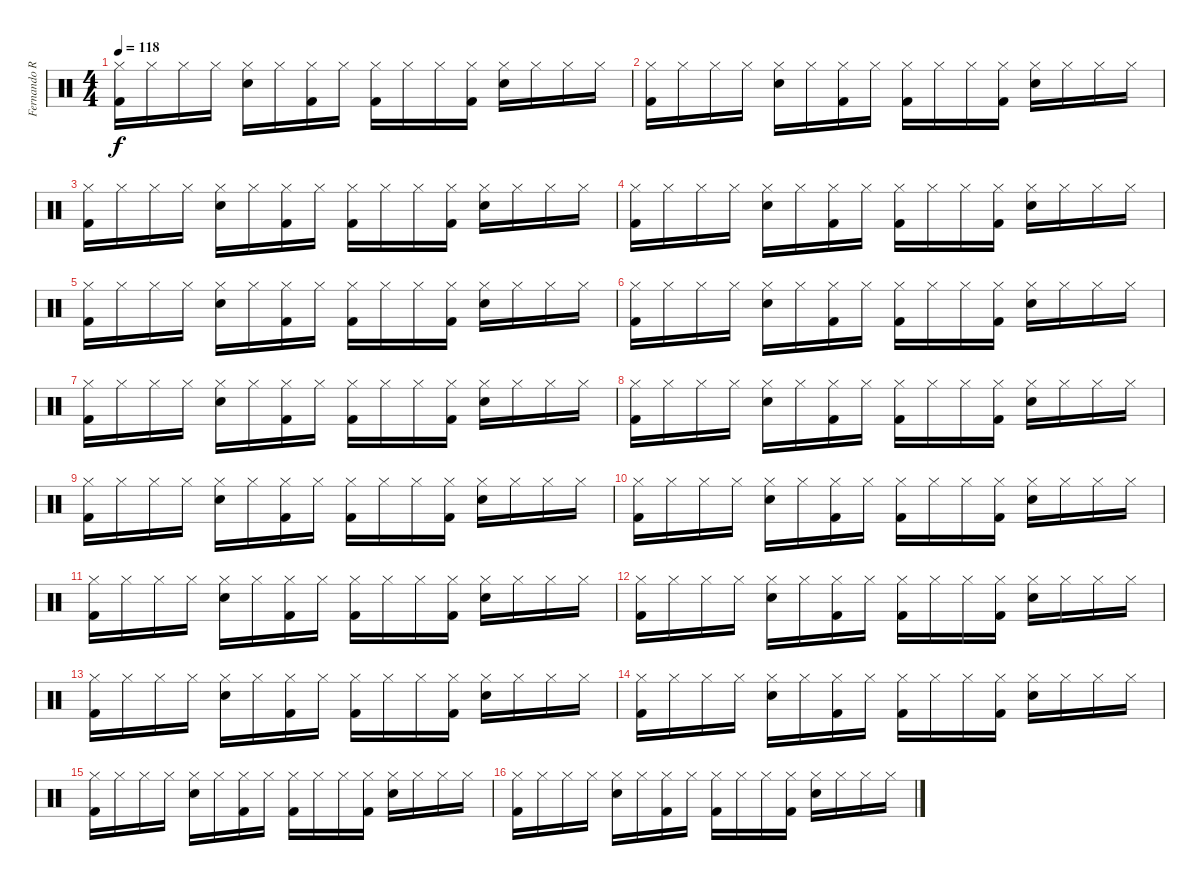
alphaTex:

\track ("Fernando Ricciardi" "Fernando R") {instrument percussion}
\staff {score}
\articulation defaults
\ts (4 4)
\tempo 118
\clef neutral
\ks c
("Hi-Hat (closed)" "Kick (hit) 2").16{dy f} "Hi-Hat (closed)".16 "Hi-Hat (closed)".16 "Hi-Hat (closed)".16 ("Hi-Hat (closed)" "Snare (hit) 2").16 "Hi-Hat (closed)".16 ("Hi-Hat (closed)" "Kick (hit) 2").16 "Hi-Hat (closed)".16 ("Hi-Hat (closed)" "Kick (hit) 2").16 "Hi-Hat (closed)".16 "Hi-Hat (closed)".16 ("Hi-Hat (closed)" "Kick (hit) 2").16 ("Hi-Hat (closed)" "Snare (hit) 2").16 "Hi-Hat (closed)".16 "Hi-Hat (closed)".16 "Hi-Hat (closed)".16 |
("Hi-Hat (closed)" "Kick (hit) 2").16 "Hi-Hat (closed)".16 "Hi-Hat (closed)".16 "Hi-Hat (closed)".16 ("Hi-Hat (closed)" "Snare (hit) 2").16 "Hi-Hat (closed)".16 ("Hi-Hat (closed)" "Kick (hit) 2").16 "Hi-Hat (closed)".16 ("Hi-Hat (closed)" "Kick (hit) 2").16 "Hi-Hat (closed)".16 "Hi-Hat (closed)".16 ("Hi-Hat (closed)" "Kick (hit) 2").16 ("Hi-Hat (closed)" "Snare (hit) 2").16 "Hi-Hat (closed)".16 "Hi-Hat (closed)".16 "Hi-Hat (closed)".16 |
("Hi-Hat (closed)" "Kick (hit) 2").16 "Hi-Hat (closed)".16 "Hi-Hat (closed)".16 "Hi-Hat (closed)".16 ("Hi-Hat (closed)" "Snare (hit) 2").16 "Hi-Hat (closed)".16 ("Hi-Hat (closed)" "Kick (hit) 2").16 "Hi-Hat (closed)".16 ("Hi-Hat (closed)" "Kick (hit) 2").16 "Hi-Hat (closed)".16 "Hi-Hat (closed)".16 ("Hi-Hat (closed)" "Kick (hit) 2").16 ("Hi-Hat (closed)" "Snare (hit) 2").16 "Hi-Hat (closed)".16 "Hi-Hat (closed)".16 "Hi-Hat (closed)".16 |
("Hi-Hat (closed)" "Kick (hit) 2").16 "Hi-Hat (closed)".16 "Hi-Hat (closed)".16 "Hi-Hat (closed)".16 ("Hi-Hat (closed)" "Snare (hit) 2").16 "Hi-Hat (closed)".16 ("Hi-Hat (closed)" "Kick (hit) 2").16 "Hi-Hat (closed)".16 ("Hi-Hat (closed)" "Kick (hit) 2").16 "Hi-Hat (closed)".16 "Hi-Hat (closed)".16 ("Hi-Hat (closed)" "Kick (hit) 2").16 ("Hi-Hat (closed)" "Snare (hit) 2").16 "Hi-Hat (closed)".16 "Hi-Hat (closed)".16 "Hi-Hat (closed)".16 |
("Hi-Hat (closed)" "Kick (hit) 2").16 "Hi-Hat (closed)".16 "Hi-Hat (closed)".16 "Hi-Hat (closed)".16 ("Hi-Hat (closed)" "Snare (hit) 2").16 "Hi-Hat (closed)".16 ("Hi-Hat (closed)" "Kick (hit) 2").16 "Hi-Hat (closed)".16 ("Hi-Hat (closed)" "Kick (hit) 2").16 "Hi-Hat (closed)".16 "Hi-Hat (closed)".16 ("Hi-Hat (closed)" "Kick (hit) 2").16 ("Hi-Hat (closed)" "Snare (hit) 2").16 "Hi-Hat (closed)".16 "Hi-Hat (closed)".16 "Hi-Hat (closed)".16 |
("Hi-Hat (closed)" "Kick (hit) 2").16 "Hi-Hat (closed)".16 "Hi-Hat (closed)".16 "Hi-Hat (closed)".16 ("Hi-Hat (closed)" "Snare (hit) 2").16 "Hi-Hat (closed)".16 ("Hi-Hat (closed)" "Kick (hit) 2").16 "Hi-Hat (closed)".16 ("Hi-Hat (closed)" "Kick (hit) 2").16 "Hi-Hat (closed)".16 "Hi-Hat (closed)".16 ("Hi-Hat (closed)" "Kick (hit) 2").16 ("Hi-Hat (closed)" "Snare (hit) 2").16 "Hi-Hat (closed)".16 "Hi-Hat (closed)".16 "Hi-Hat (closed)".16 |
("Hi-Hat (closed)" "Kick (hit) 2").16 "Hi-Hat (closed)".16 "Hi-Hat (closed)".16 "Hi-Hat (closed)".16 ("Hi-Hat (closed)" "Snare (hit) 2").16 "Hi-Hat (closed)".16 ("Hi-Hat (closed)" "Kick (hit) 2").16 "Hi-Hat (closed)".16 ("Hi-Hat (closed)" "Kick (hit) 2").16 "Hi-Hat (closed)".16 "Hi-Hat (closed)".16 ("Hi-Hat (closed)" "Kick (hit) 2").16 ("Hi-Hat (closed)" "Snare (hit) 2").16 "Hi-Hat (closed)".16 "Hi-Hat (closed)".16 "Hi-Hat (closed)".16 |
("Hi-Hat (closed)" "Kick (hit) 2").16 "Hi-Hat (closed)".16 "Hi-Hat (closed)".16 "Hi-Hat (closed)".16 ("Hi-Hat (closed)" "Snare (hit) 2").16 "Hi-Hat (closed)".16 ("Hi-Hat (closed)" "Kick (hit) 2").16 "Hi-Hat (closed)".16 ("Hi-Hat (closed)" "Kick (hit) 2").16 "Hi-Hat (closed)".16 "Hi-Hat (closed)".16 ("Hi-Hat (closed)" "Kick (hit) 2").16 ("Hi-Hat (closed)" "Snare (hit) 2").16 "Hi-Hat (closed)".16 "Hi-Hat (closed)".16 "Hi-Hat (closed)".16 |
("Hi-Hat (closed)" "Kick (hit) 2").16 "Hi-Hat (closed)".16 "Hi-Hat (closed)".16 "Hi-Hat (closed)".16 ("Hi-Hat (closed)" "Snare (hit) 2").16 "Hi-Hat (closed)".16 ("Hi-Hat (closed)" "Kick (hit) 2").16 "Hi-Hat (closed)".16 ("Hi-Hat (closed)" "Kick (hit) 2").16 "Hi-Hat (closed)".16 "Hi-Hat (closed)".16 ("Hi-Hat (closed)" "Kick (hit) 2").16 ("Hi-Hat (closed)" "Snare (hit) 2").16 "Hi-Hat (closed)".16 "Hi-Hat (closed)".16 "Hi-Hat (closed)".16 |
("Hi-Hat (closed)" "Kick (hit) 2").16 "Hi-Hat (closed)".16 "Hi-Hat (closed)".16 "Hi-Hat (closed)".16 ("Hi-Hat (closed)" "Snare (hit) 2").16 "Hi-Hat (closed)".16 ("Hi-Hat (closed)" "Kick (hit) 2").16 "Hi-Hat (closed)".16 ("Hi-Hat (closed)" "Kick (hit) 2").16 "Hi-Hat (closed)".16 "Hi-Hat (closed)".16 ("Hi-Hat (closed)" "Kick (hit) 2").16 ("Hi-Hat (closed)" "Snare (hit) 2").16 "Hi-Hat (closed)".16 "Hi-Hat (closed)".16 "Hi-Hat (closed)".16 |
("Hi-Hat (closed)" "Kick (hit) 2").16 "Hi-Hat (closed)".16 "Hi-Hat (closed)".16 "Hi-Hat (closed)".16 ("Hi-Hat (closed)" "Snare (hit) 2").16 "Hi-Hat (closed)".16 ("Hi-Hat (closed)" "Kick (hit) 2").16 "Hi-Hat (closed)".16 ("Hi-Hat (closed)" "Kick (hit) 2").16 "Hi-Hat (closed)".16 "Hi-Hat (closed)".16 ("Hi-Hat (closed)" "Kick (hit) 2").16 ("Hi-Hat (closed)" "Snare (hit) 2").16 "Hi-Hat (closed)".16 "Hi-Hat (closed)".16 "Hi-Hat (closed)".16 |
("Hi-Hat (closed)" "Kick (hit) 2").16 "Hi-Hat (closed)".16 "Hi-Hat (closed)".16 "Hi-Hat (closed)".16 ("Hi-Hat (closed)" "Snare (hit) 2").16 "Hi-Hat (closed)".16 ("Hi-Hat (closed)" "Kick (hit) 2").16 "Hi-Hat (closed)".16 ("Hi-Hat (closed)" "Kick (hit) 2").16 "Hi-Hat (closed)".16 "Hi-Hat (closed)".16 ("Hi-Hat (closed)" "Kick (hit) 2").16 ("Hi-Hat (closed)" "Snare (hit) 2").16 "Hi-Hat (closed)".16 "Hi-Hat (closed)".16 "Hi-Hat (closed)".16 |
("Hi-Hat (closed)" "Kick (hit) 2").16 "Hi-Hat (closed)".16 "Hi-Hat (closed)".16 "Hi-Hat (closed)".16 ("Hi-Hat (closed)" "Snare (hit) 2").16 "Hi-Hat (closed)".16 ("Hi-Hat (closed)" "Kick (hit) 2").16 "Hi-Hat (closed)".16 ("Hi-Hat (closed)" "Kick (hit) 2").16 "Hi-Hat (closed)".16 "Hi-Hat (closed)".16 ("Hi-Hat (closed)" "Kick (hit) 2").16 ("Hi-Hat (closed)" "Snare (hit) 2").16 "Hi-Hat (closed)".16 "Hi-Hat (closed)".16 "Hi-Hat (closed)".16 |
("Hi-Hat (closed)" "Kick (hit) 2").16 "Hi-Hat (closed)".16 "Hi-Hat (closed)".16 "Hi-Hat (closed)".16 ("Hi-Hat (closed)" "Snare (hit) 2").16 "Hi-Hat (closed)".16 ("Hi-Hat (closed)" "Kick (hit) 2").16 "Hi-Hat (closed)".16 ("Hi-Hat (closed)" "Kick (hit) 2").16 "Hi-Hat (closed)".16 "Hi-Hat (closed)".16 ("Hi-Hat (closed)" "Kick (hit) 2").16 ("Hi-Hat (closed)" "Snare (hit) 2").16 "Hi-Hat (closed)".16 "Hi-Hat (closed)".16 "Hi-Hat (closed)".16 |
("Hi-Hat (closed)" "Kick (hit) 2").16 "Hi-Hat (closed)".16 "Hi-Hat (closed)".16 "Hi-Hat (closed)".16 ("Hi-Hat (closed)" "Snare (hit) 2").16 "Hi-Hat (closed)".16 ("Hi-Hat (closed)" "Kick (hit) 2").16 "Hi-Hat (closed)".16 ("Hi-Hat (closed)" "Kick (hit) 2").16 "Hi-Hat (closed)".16 "Hi-Hat (closed)".16 ("Hi-Hat (closed)" "Kick (hit) 2").16 ("Hi-Hat (closed)" "Snare (hit) 2").16 "Hi-Hat (closed)".16 "Hi-Hat (closed)".16 "Hi-Hat (closed)".16 |
("Hi-Hat (closed)" "Kick (hit) 2").16 "Hi-Hat (closed)".16 "Hi-Hat (closed)".16 "Hi-Hat (closed)".16 ("Hi-Hat (closed)" "Snare (hit) 2").16 "Hi-Hat (closed)".16 ("Hi-Hat (closed)" "Kick (hit) 2").16 "Hi-Hat (closed)".16 ("Hi-Hat (closed)" "Kick (hit) 2").16 "Hi-Hat (closed)".16 "Hi-Hat (closed)".16 ("Hi-Hat (closed)" "Kick (hit) 2").16 ("Hi-Hat (closed)" "Snare (hit) 2").16 "Hi-Hat (closed)".16 "Hi-Hat (closed)".16 "Hi-Hat (closed)".16
